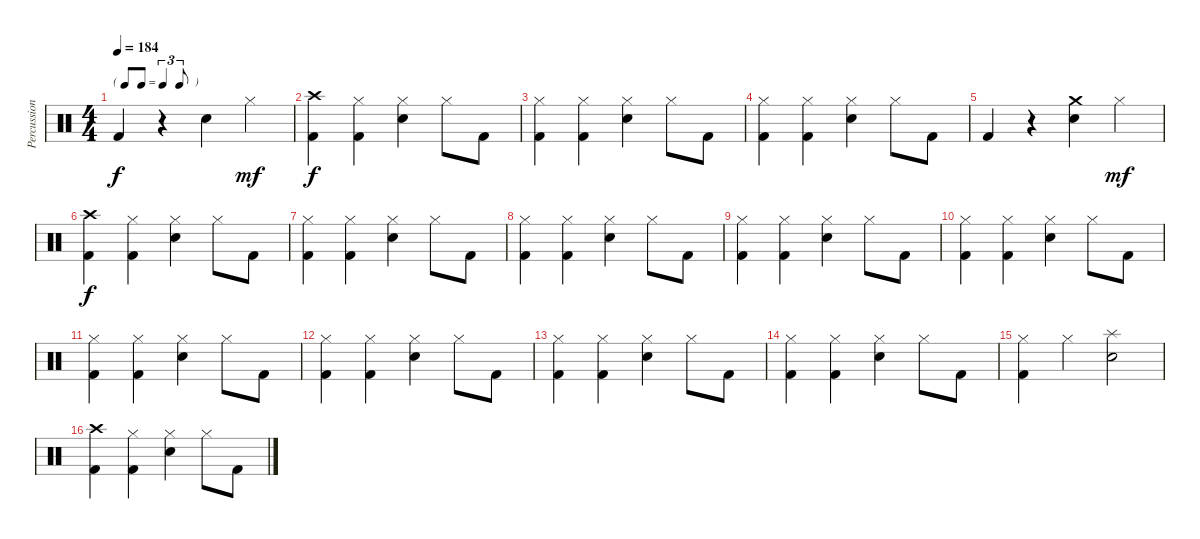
\track ("Percussion" "Percussion") {instrument percussion}
\staff {score}
\articulation defaults
\ts (4 4)
\tf triplet8th
\tempo 184
\clef neutral
\ks c "Kick (hit) 2".4{dy f}
r.4 "Electric Snare (hit)".4 "Hi-Hat (closed)".4{dy mf} |
("Crash high (hit)" "Kick (hit) 2").4{dy f} ("Hi-Hat (closed)" "Kick (hit) 2").4 ("Hi-Hat (closed)" "Electric Snare (hit)").4 "Hi-Hat (closed)".8 "Kick (hit) 2".8 |
("Hi-Hat (closed)" "Kick (hit) 2").4 ("Hi-Hat (closed)" "Kick (hit) 2").4 ("Hi-Hat (closed)" "Electric Snare (hit)").4 "Hi-Hat (closed)".8 "Kick (hit) 2".8 |
("Hi-Hat (closed)" "Kick (hit) 2").4 ("Hi-Hat (closed)" "Kick (hit) 2").4 ("Hi-Hat (closed)" "Electric Snare (hit)").4 "Hi-Hat (closed)".8 "Kick (hit) 2".8 |
"Kick (hit) 2".4 r.4 ("Crash medium (hit)" "Electric Snare (hit)").4 "Hi-Hat (closed)".4{dy mf} |
("Crash high (hit)" "Kick (hit) 2").4{dy f} ("Hi-Hat (closed)" "Kick (hit) 2").4 ("Hi-Hat (closed)" "Electric Snare (hit)").4 "Hi-Hat (closed)".8 "Kick (hit) 2".8 |
("Hi-Hat (closed)" "Kick (hit) 2").4 ("Hi-Hat (closed)" "Kick (hit) 2").4 ("Hi-Hat (closed)" "Electric Snare (hit)").4 "Hi-Hat (closed)".8 "Kick (hit) 2".8 |
("Hi-Hat (closed)" "Kick (hit) 2").4 ("Hi-Hat (closed)" "Kick (hit) 2").4 ("Hi-Hat (closed)" "Electric Snare (hit)").4 "Hi-Hat (closed)".8 "Kick (hit) 2".8 |
("Hi-Hat (closed)" "Kick (hit) 2").4 ("Hi-Hat (closed)" "Kick (hit) 2").4 ("Hi-Hat (closed)" "Electric Snare (hit)").4 "Hi-Hat (closed)".8 "Kick (hit) 2".8 |
("Hi-Hat (closed)" "Kick (hit) 2").4 ("Hi-Hat (closed)" "Kick (hit) 2").4 ("Hi-Hat (closed)" "Electric Snare (hit)").4 "Hi-Hat (closed)".8 "Kick (hit) 2".8 |
("Hi-Hat (closed)" "Kick (hit) 2").4 ("Hi-Hat (closed)" "Kick (hit) 2").4 ("Hi-Hat (closed)" "Electric Snare (hit)").4 "Hi-Hat (closed)".8 "Kick (hit) 2".8 |
("Hi-Hat (closed)" "Kick (hit) 2").4 ("Hi-Hat (closed)" "Kick (hit) 2").4 ("Hi-Hat (closed)" "Electric Snare (hit)").4 "Hi-Hat (closed)".8 "Kick (hit) 2".8 |
("Hi-Hat (closed)" "Kick (hit) 2").4 ("Hi-Hat (closed)" "Kick (hit) 2").4 ("Hi-Hat (closed)" "Electric Snare (hit)").4 "Hi-Hat (closed)".8 "Kick (hit) 2".8 |
("Hi-Hat (closed)" "Kick (hit) 2").4 ("Hi-Hat (closed)" "Kick (hit) 2").4 ("Hi-Hat (closed)" "Electric Snare (hit)").4 "Hi-Hat (closed)".8 "Kick (hit) 2".8 |
("Hi-Hat (closed)" "Kick (hit) 2").4 "Hi-Hat (closed)".4 ("Splash (hit)" "Electric Snare (hit)").2 |
("Crash high (hit)" "Kick (hit) 2").4 ("Hi-Hat (closed)" "Kick (hit) 2").4 ("Hi-Hat (closed)" "Electric Snare (hit)").4 "Hi-Hat (closed)".8 "Kick (hit) 2".8
